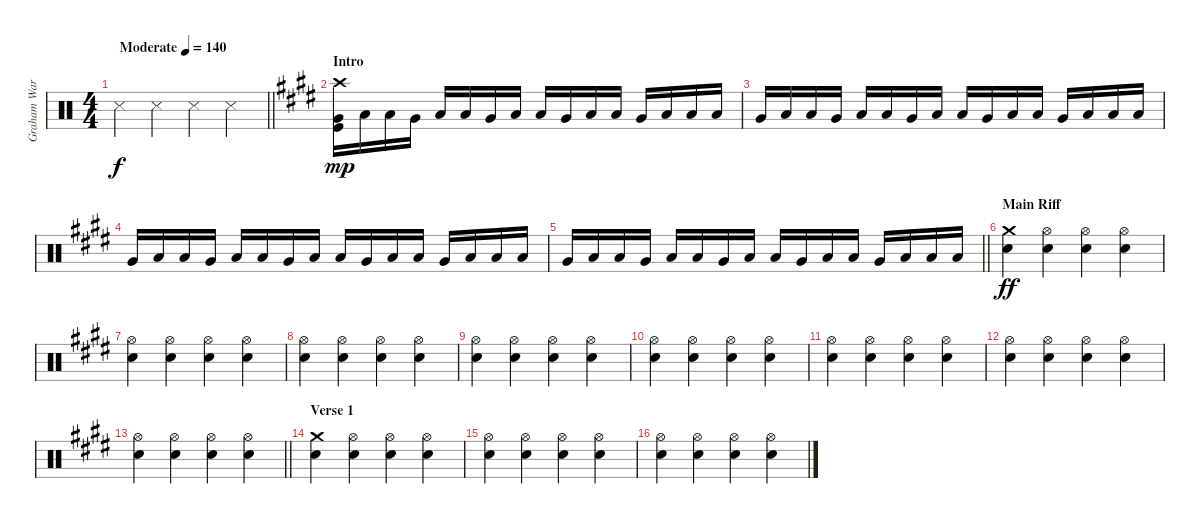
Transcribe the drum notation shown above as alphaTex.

\track ("Graham Ward (Drums)" "Graham War") {instrument percussion}
\staff {score}
\articulation defaults
\ts (4 4)
\tempo (140 "Moderate")
\clef neutral
\barLineRight lightlight
\ks c "Snare (side stick) 3".4{dy f} "Snare (side stick) 3".4 "Snare (side stick) 3".4 "Snare (side stick) 3".4
|
\section ("" "Intro")
\ks e
("Crash high (hit)" "Very Low Tom (hit)" "Kick (hit)").16{dy mp} "Low Floor Tom (hit)".16 "Low Floor Tom (hit)".16 "Very Low Tom (hit)".16 "Low Floor Tom (hit)".16 "Low Floor Tom (hit)".16 "Very Low Tom (hit)".16 "Low Floor Tom (hit)".16 "Low Floor Tom (hit)".16 "Very Low Tom (hit)".16 "Low Floor Tom (hit)".16 "Low Floor Tom (hit)".16 "Very Low Tom (hit)".16 "Low Floor Tom (hit)".16 "Low Floor Tom (hit)".16 "Low Floor Tom (hit)".16 |
"Very Low Tom (hit)".16 "Low Floor Tom (hit)".16 "Low Floor Tom (hit)".16 "Very Low Tom (hit)".16 "Low Floor Tom (hit)".16 "Low Floor Tom (hit)".16 "Very Low Tom (hit)".16 "Low Floor Tom (hit)".16 "Low Floor Tom (hit)".16 "Very Low Tom (hit)".16 "Low Floor Tom (hit)".16 "Low Floor Tom (hit)".16 "Very Low Tom (hit)".16 "Low Floor Tom (hit)".16 "Low Floor Tom (hit)".16 "Low Floor Tom (hit)".16 |
"Very Low Tom (hit)".16 "Low Floor Tom (hit)".16 "Low Floor Tom (hit)".16 "Very Low Tom (hit)".16 "Low Floor Tom (hit)".16 "Low Floor Tom (hit)".16 "Very Low Tom (hit)".16 "Low Floor Tom (hit)".16 "Low Floor Tom (hit)".16 "Very Low Tom (hit)".16 "Low Floor Tom (hit)".16 "Low Floor Tom (hit)".16 "Very Low Tom (hit)".16 "Low Floor Tom (hit)".16 "Low Floor Tom (hit)".16 "Low Floor Tom (hit)".16 |
\barLineRight lightlight "Very Low Tom (hit)".16 "Low Floor Tom (hit)".16 "Low Floor Tom (hit)".16 "Very Low Tom (hit)".16 "Low Floor Tom (hit)".16 "Low Floor Tom (hit)".16 "Very Low Tom (hit)".16 "Low Floor Tom (hit)".16 "Low Floor Tom (hit)".16 "Very Low Tom (hit)".16 "Low Floor Tom (hit)".16 "Low Floor Tom (hit)".16 "Very Low Tom (hit)".16 "Low Floor Tom (hit)".16 "Low Floor Tom (hit)".16 "Low Floor Tom (hit)".16
|
\section ("" "Main Riff")
("Crash medium (hit)" "Snare (hit) 2").4{dy ff} ("Snare (hit) 2" "Hi-Hat (open)").4 ("Snare (hit) 2" "Hi-Hat (open)").4 ("Snare (hit) 2" "Hi-Hat (open)").4 |
("Snare (hit) 2" "Hi-Hat (open)").4 ("Snare (hit) 2" "Hi-Hat (open)").4 ("Snare (hit) 2" "Hi-Hat (open)").4 ("Snare (hit) 2" "Hi-Hat (open)").4 |
("Snare (hit) 2" "Hi-Hat (open)").4 ("Snare (hit) 2" "Hi-Hat (open)").4 ("Snare (hit) 2" "Hi-Hat (open)").4 ("Snare (hit) 2" "Hi-Hat (open)").4 |
("Snare (hit) 2" "Hi-Hat (open)").4 ("Snare (hit) 2" "Hi-Hat (open)").4 ("Snare (hit) 2" "Hi-Hat (open)").4 ("Snare (hit) 2" "Hi-Hat (open)").4 |
("Snare (hit) 2" "Hi-Hat (open)").4 ("Snare (hit) 2" "Hi-Hat (open)").4 ("Snare (hit) 2" "Hi-Hat (open)").4 ("Snare (hit) 2" "Hi-Hat (open)").4 |
("Snare (hit) 2" "Hi-Hat (open)").4 ("Snare (hit) 2" "Hi-Hat (open)").4 ("Snare (hit) 2" "Hi-Hat (open)").4 ("Snare (hit) 2" "Hi-Hat (open)").4 |
("Snare (hit) 2" "Hi-Hat (open)").4 ("Snare (hit) 2" "Hi-Hat (open)").4 ("Snare (hit) 2" "Hi-Hat (open)").4 ("Snare (hit) 2" "Hi-Hat (open)").4 |
\barLineRight lightlight
("Snare (hit) 2" "Hi-Hat (open)").4 ("Snare (hit) 2" "Hi-Hat (open)").4 ("Snare (hit) 2" "Hi-Hat (open)").4 ("Snare (hit) 2" "Hi-Hat (open)").4 |
\section ("" "Verse 1")
("Crash medium (hit)" "Snare (hit) 2").4 ("Snare (hit) 2" "Hi-Hat (open)").4 ("Snare (hit) 2" "Hi-Hat (open)").4 ("Snare (hit) 2" "Hi-Hat (open)").4 |
("Snare (hit) 2" "Hi-Hat (open)").4 ("Snare (hit) 2" "Hi-Hat (open)").4 ("Snare (hit) 2" "Hi-Hat (open)").4 ("Snare (hit) 2" "Hi-Hat (open)").4 |
("Snare (hit) 2" "Hi-Hat (open)").4 ("Snare (hit) 2" "Hi-Hat (open)").4 ("Snare (hit) 2" "Hi-Hat (open)").4 ("Snare (hit) 2" "Hi-Hat (open)").4
